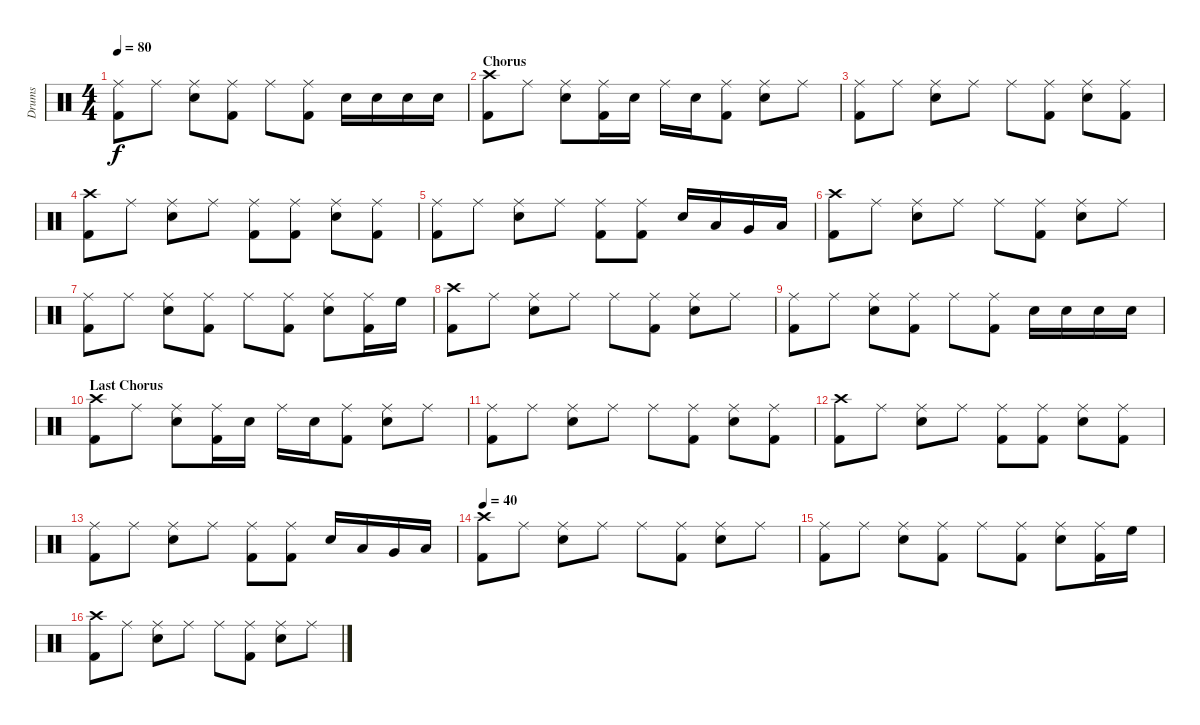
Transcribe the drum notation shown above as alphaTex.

\track ("Drums" "Drums") {instrument percussion}
\staff {score}
\articulation defaults
\ts (4 4)
\tempo 80
\clef neutral
\ks c
("Ride (middle)" "Kick (hit) 2").8{dy f} "Ride (middle)".8 ("Ride (middle)" "Electric Snare (hit)").8 ("Ride (middle)" "Kick (hit) 2").8 "Ride (middle)".8 ("Ride (middle)" "Kick (hit) 2").8 "Electric Snare (hit)".16 "Electric Snare (hit)".16 "Electric Snare (hit)".16 "Electric Snare (hit)".16 |
\section ("" "Chorus")
("Crash high (hit)" "Kick (hit) 2").8 "Ride (middle)".8 ("Ride (middle)" "Electric Snare (hit)").8 ("Ride (middle)" "Kick (hit) 2").16 "Electric Snare (hit)".16 "Ride (middle)".16 "Electric Snare (hit)".16 ("Ride (middle)" "Kick (hit) 2").8 ("Ride (middle)" "Electric Snare (hit)").8 "Ride (middle)".8 |
("Ride (middle)" "Kick (hit) 2").8 "Ride (middle)".8 ("Ride (middle)" "Electric Snare (hit)").8 "Ride (middle)".8 "Ride (middle)".8 ("Ride (middle)" "Kick (hit) 2").8 ("Ride (middle)" "Electric Snare (hit)").8 ("Ride (middle)" "Kick (hit) 2").8 |
("Crash high (hit)" "Kick (hit) 2").8 "Ride (middle)".8 ("Ride (middle)" "Electric Snare (hit)").8 "Ride (middle)".8 ("Ride (middle)" "Kick (hit) 2").8 ("Ride (middle)" "Kick (hit) 2").8 ("Ride (middle)" "Electric Snare (hit)").8 ("Ride (middle)" "Kick (hit) 2").8 |
("Ride (middle)" "Kick (hit) 2").8 "Ride (middle)".8 ("Ride (middle)" "Electric Snare (hit)").8 "Ride (middle)".8 ("Ride (middle)" "Kick (hit) 2").8 ("Ride (middle)" "Kick (hit) 2").8 "Electric Snare (hit)".16 "Low Tom (hit)".16 "Very Low Tom (hit)".16 "Low Floor Tom (hit)".16 |
("Crash high (hit)" "Kick (hit) 2").8 "Ride (middle)".8 ("Ride (middle)" "Electric Snare (hit)").8 "Ride (middle)".8 "Ride (middle)".8 ("Ride (middle)" "Kick (hit) 2").8 ("Ride (middle)" "Electric Snare (hit)").8 "Ride (middle)".8 |
("Ride (middle)" "Kick (hit) 2").8 "Ride (middle)".8 ("Ride (middle)" "Electric Snare (hit)").8 ("Ride (middle)" "Kick (hit) 2").8 "Ride (middle)".8 ("Ride (middle)" "Kick (hit) 2").8 ("Ride (middle)" "Electric Snare (hit)").8 ("Ride (middle)" "Kick (hit) 2").16 "High Floor Tom (hit)".16 |
("Crash high (hit)" "Kick (hit) 2").8 "Ride (middle)".8 ("Ride (middle)" "Electric Snare (hit)").8 "Ride (middle)".8 "Ride (middle)".8 ("Ride (middle)" "Kick (hit) 2").8 ("Ride (middle)" "Electric Snare (hit)").8 "Ride (middle)".8 |
("Ride (middle)" "Kick (hit) 2").8 "Ride (middle)".8 ("Ride (middle)" "Electric Snare (hit)").8 ("Ride (middle)" "Kick (hit) 2").8 "Ride (middle)".8 ("Ride (middle)" "Kick (hit) 2").8 "Electric Snare (hit)".16 "Electric Snare (hit)".16 "Electric Snare (hit)".16 "Electric Snare (hit)".16 |
\section ("" "Last Chorus")
("Crash high (hit)" "Kick (hit) 2").8 "Ride (middle)".8 ("Ride (middle)" "Electric Snare (hit)").8 ("Ride (middle)" "Kick (hit) 2").16 "Electric Snare (hit)".16 "Ride (middle)".16 "Electric Snare (hit)".16 ("Ride (middle)" "Kick (hit) 2").8 ("Ride (middle)" "Electric Snare (hit)").8 "Ride (middle)".8 |
("Ride (middle)" "Kick (hit) 2").8 "Ride (middle)".8 ("Ride (middle)" "Electric Snare (hit)").8 "Ride (middle)".8 "Ride (middle)".8 ("Ride (middle)" "Kick (hit) 2").8 ("Ride (middle)" "Electric Snare (hit)").8 ("Ride (middle)" "Kick (hit) 2").8 |
("Crash high (hit)" "Kick (hit) 2").8 "Ride (middle)".8 ("Ride (middle)" "Electric Snare (hit)").8 "Ride (middle)".8 ("Ride (middle)" "Kick (hit) 2").8 ("Ride (middle)" "Kick (hit) 2").8 ("Ride (middle)" "Electric Snare (hit)").8 ("Ride (middle)" "Kick (hit) 2").8 |
("Ride (middle)" "Kick (hit) 2").8 "Ride (middle)".8 ("Ride (middle)" "Electric Snare (hit)").8 "Ride (middle)".8 ("Ride (middle)" "Kick (hit) 2").8 ("Ride (middle)" "Kick (hit) 2").8 "Electric Snare (hit)".16 "Low Tom (hit)".16 "Very Low Tom (hit)".16 "Low Floor Tom (hit)".16 |
\tempo 40
("Crash high (hit)" "Kick (hit) 2").8 "Ride (middle)".8 ("Ride (middle)" "Electric Snare (hit)").8 "Ride (middle)".8 "Ride (middle)".8 ("Ride (middle)" "Kick (hit) 2").8 ("Ride (middle)" "Electric Snare (hit)").8 "Ride (middle)".8 |
("Ride (middle)" "Kick (hit) 2").8 "Ride (middle)".8 ("Ride (middle)" "Electric Snare (hit)").8 ("Ride (middle)" "Kick (hit) 2").8 "Ride (middle)".8 ("Ride (middle)" "Kick (hit) 2").8 ("Ride (middle)" "Electric Snare (hit)").8 ("Ride (middle)" "Kick (hit) 2").16 "High Floor Tom (hit)".16 |
("Crash high (hit)" "Kick (hit) 2").8 "Ride (middle)".8 ("Ride (middle)" "Electric Snare (hit)").8 "Ride (middle)".8 "Ride (middle)".8 ("Ride (middle)" "Kick (hit) 2").8 ("Ride (middle)" "Electric Snare (hit)").8 "Ride (middle)".8
